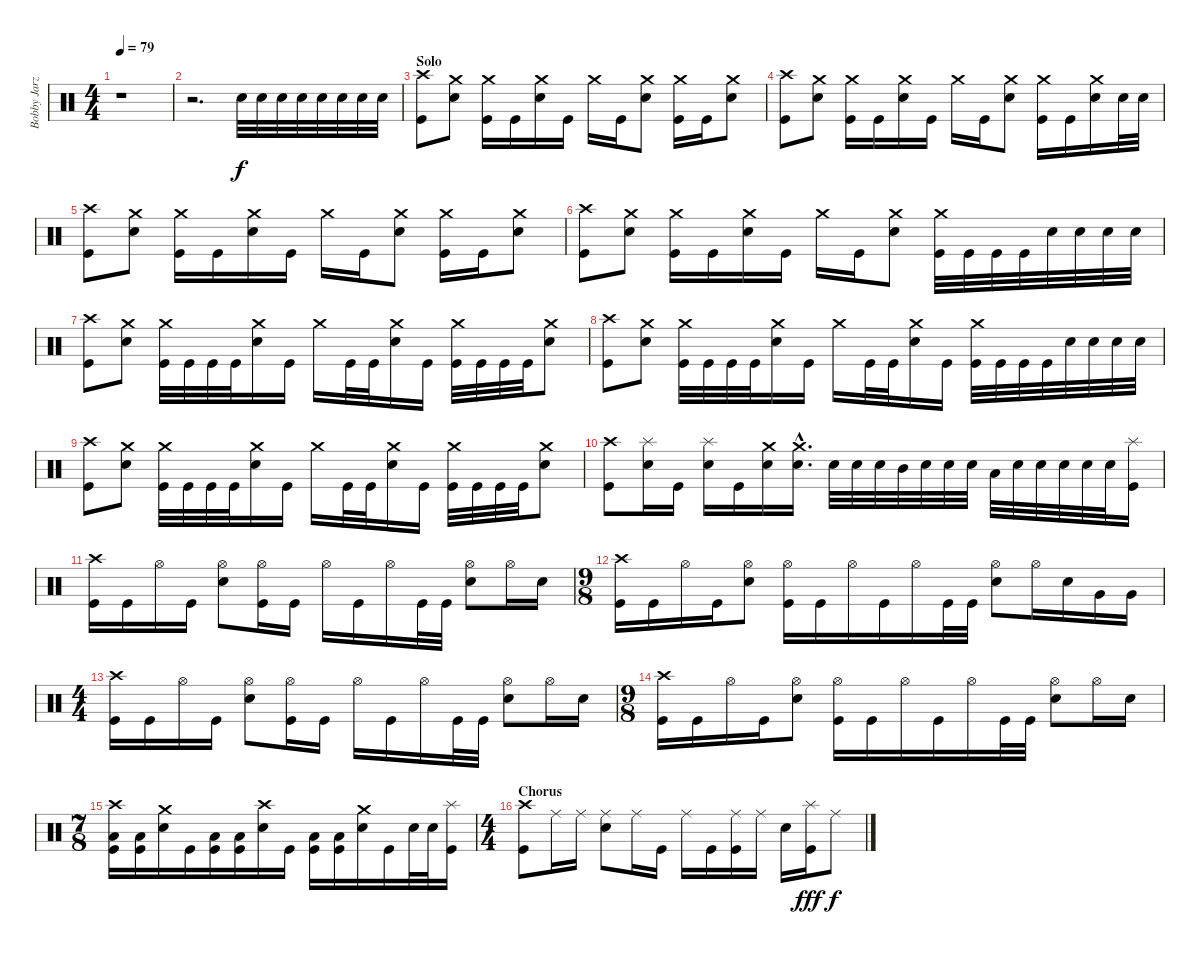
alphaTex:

\track ("Bobby Jarzombek" "Bobby Jarz") {instrument percussion}
\staff {score}
\articulation defaults
\ts (4 4)
\tempo 79
\clef neutral
\ks c
r.1{dy f} |
r.2{d} "Electric Snare (hit)".32 "Electric Snare (hit)".32 "Electric Snare (hit)".32 "Electric Snare (hit)".32 "Electric Snare (hit)".32 "Electric Snare (hit)".32 "Electric Snare (hit)".32 "Electric Snare (hit)".32 |
\section ("" "Solo")
("Crash high (hit)" "Kick (hit)").8 ("Crash medium (hit)" "Electric Snare (hit)").8 ("Crash medium (hit)" "Kick (hit)").16 "Kick (hit)".16 ("Crash medium (hit)" "Electric Snare (hit)").16 "Kick (hit)".16 "Crash medium (hit)".16 "Kick (hit)".16 ("Crash medium (hit)" "Electric Snare (hit)").8 ("Crash medium (hit)" "Kick (hit)").16 "Kick (hit)".16 ("Crash medium (hit)" "Electric Snare (hit)").8 |
("Crash high (hit)" "Kick (hit)").8 ("Crash medium (hit)" "Electric Snare (hit)").8 ("Crash medium (hit)" "Kick (hit)").16 "Kick (hit)".16 ("Crash medium (hit)" "Electric Snare (hit)").16 "Kick (hit)".16 "Crash medium (hit)".16 "Kick (hit)".16 ("Crash medium (hit)" "Electric Snare (hit)").8 ("Crash medium (hit)" "Kick (hit)").16 "Kick (hit)".16 ("Crash medium (hit)" "Electric Snare (hit)").16 "Electric Snare (hit)".32 "Electric Snare (hit)".32 |
("Crash high (hit)" "Kick (hit)").8 ("Crash medium (hit)" "Electric Snare (hit)").8 ("Crash medium (hit)" "Kick (hit)").16 "Kick (hit)".16 ("Crash medium (hit)" "Electric Snare (hit)").16 "Kick (hit)".16 "Crash medium (hit)".16 "Kick (hit)".16 ("Crash medium (hit)" "Electric Snare (hit)").8 ("Crash medium (hit)" "Kick (hit)").16 "Kick (hit)".16 ("Crash medium (hit)" "Electric Snare (hit)").8 |
("Crash high (hit)" "Kick (hit)").8 ("Crash medium (hit)" "Electric Snare (hit)").8 ("Crash medium (hit)" "Kick (hit)").16 "Kick (hit)".16 ("Crash medium (hit)" "Electric Snare (hit)").16 "Kick (hit)".16 "Crash medium (hit)".16 "Kick (hit)".16 ("Crash medium (hit)" "Electric Snare (hit)").8 ("Crash medium (hit)" "Kick (hit)").32 "Kick (hit)".32 "Kick (hit)".32 "Kick (hit)".32 "Electric Snare (hit)".32 "Electric Snare (hit)".32 "Electric Snare (hit)".32 "Electric Snare (hit)".32 |
("Crash high (hit)" "Kick (hit)").8 ("Crash medium (hit)" "Electric Snare (hit)").8 ("Crash medium (hit)" "Kick (hit)").32 "Kick (hit)".32 "Kick (hit)".32 "Kick (hit)".32 ("Crash medium (hit)" "Electric Snare (hit)").16 "Kick (hit)".16 "Crash medium (hit)".16 "Kick (hit)".32 "Kick (hit)".32 ("Crash medium (hit)" "Electric Snare (hit)").16 "Kick (hit)".16 ("Crash medium (hit)" "Kick (hit)").32 "Kick (hit)".32 "Kick (hit)".32 "Kick (hit)".32 ("Crash medium (hit)" "Electric Snare (hit)").8 |
("Crash high (hit)" "Kick (hit)").8 ("Crash medium (hit)" "Electric Snare (hit)").8 ("Crash medium (hit)" "Kick (hit)").32 "Kick (hit)".32 "Kick (hit)".32 "Kick (hit)".32 ("Crash medium (hit)" "Electric Snare (hit)").16 "Kick (hit)".16 "Crash medium (hit)".16 "Kick (hit)".32 "Kick (hit)".32 ("Crash medium (hit)" "Electric Snare (hit)").16 "Kick (hit)".16 ("Crash medium (hit)" "Kick (hit)").32 "Kick (hit)".32 "Kick (hit)".32 "Kick (hit)".32 "Electric Snare (hit)".32 "Electric Snare (hit)".32 "Electric Snare (hit)".32 "Electric Snare (hit)".32 |
("Crash high (hit)" "Kick (hit)").8 ("Crash medium (hit)" "Electric Snare (hit)").8 ("Crash medium (hit)" "Kick (hit)").32 "Kick (hit)".32 "Kick (hit)".32 "Kick (hit)".32 ("Crash medium (hit)" "Electric Snare (hit)").16 "Kick (hit)".16 "Crash medium (hit)".16 "Kick (hit)".32 "Kick (hit)".32 ("Crash medium (hit)" "Electric Snare (hit)").16 "Kick (hit)".16 ("Crash medium (hit)" "Kick (hit)").32 "Kick (hit)".32 "Kick (hit)".32 "Kick (hit)".32 ("Crash medium (hit)" "Electric Snare (hit)").8 |
("Crash high (hit)" "Kick (hit)").8 ("Splash (hit)" "Electric Snare (hit)").16 "Kick (hit)".16 ("Splash (hit)" "Electric Snare (hit)").16 "Kick (hit)".16 ("Crash medium (hit)" "Electric Snare (hit)").16 ("Crash medium (hit)"{hac} "Electric Snare (hit)"{hac}).16{d} "Electric Snare (hit)".32 "Electric Snare (hit)".32 "Electric Snare (hit)".32 "Mid Tom (hit)".32 "Electric Snare (hit)".32 "Electric Snare (hit)".32 "Electric Snare (hit)".32 "Low Tom (hit)".32 "Electric Snare (hit)".32 "Electric Snare (hit)".32 "Electric Snare (hit)".32 "Electric Snare (hit)".32 "Electric Snare (hit)".32 ("Splash (hit)" "Kick (hit)").16 |
("Crash high (hit)" "Kick (hit)").16 "Kick (hit)".16 "Hi-Hat (open)".16 "Kick (hit)".16 ("Hi-Hat (open)" "Electric Snare (hit)").8 ("Hi-Hat (open)" "Kick (hit)").16 "Kick (hit)".16 "Hi-Hat (open)".16 "Kick (hit)".16 "Hi-Hat (open)".16 "Kick (hit)".32 "Kick (hit)".32 ("Hi-Hat (open)" "Electric Snare (hit)").8 "Hi-Hat (open)".16 "Electric Snare (hit)".16 |
\ts (9 8)
("Crash high (hit)" "Kick (hit)").16 "Kick (hit)".16 "Hi-Hat (open)".16 "Kick (hit)".16 ("Hi-Hat (open)" "Electric Snare (hit)").8 ("Hi-Hat (open)" "Kick (hit)").16 "Kick (hit)".16 "Hi-Hat (open)".16 "Kick (hit)".16 "Hi-Hat (open)".16 "Kick (hit)".32 "Kick (hit)".32 ("Hi-Hat (open)" "Electric Snare (hit)").8 "Hi-Hat (open)".16 "Electric Snare (hit)".16 "Very Low Tom (hit)".16 "Very Low Tom (hit)".16 |
\ts (4 4)
("Crash high (hit)" "Kick (hit)").16 "Kick (hit)".16 "Hi-Hat (open)".16 "Kick (hit)".16 ("Hi-Hat (open)" "Electric Snare (hit)").8 ("Hi-Hat (open)" "Kick (hit)").16 "Kick (hit)".16 "Hi-Hat (open)".16 "Kick (hit)".16 "Hi-Hat (open)".16 "Kick (hit)".32 "Kick (hit)".32 ("Hi-Hat (open)" "Electric Snare (hit)").8 "Hi-Hat (open)".16 "Electric Snare (hit)".16 |
\ts (9 8)
("Crash high (hit)" "Kick (hit)").16 "Kick (hit)".16 "Hi-Hat (open)".16 "Kick (hit)".16 ("Hi-Hat (open)" "Electric Snare (hit)").8 ("Hi-Hat (open)" "Kick (hit)").16 "Kick (hit)".16 "Hi-Hat (open)".16 "Kick (hit)".16 "Hi-Hat (open)".16 "Kick (hit)".32 "Kick (hit)".32 ("Hi-Hat (open)" "Electric Snare (hit)").8 "Hi-Hat (open)".16 "Electric Snare (hit)".16 |
\ts (7 8)
("Crash high (hit)" "Low Tom (hit)" "Kick (hit)").16 ("Low Tom (hit)" "Kick (hit)").16 ("Crash medium (hit)" "Electric Snare (hit)").16 "Kick (hit)".16 ("Low Tom (hit)" "Kick (hit)").16 ("Low Tom (hit)" "Kick (hit)").16 ("Crash high (hit)" "Electric Snare (hit)").16 "Kick (hit)".16 ("Low Tom (hit)" "Kick (hit)").16 ("Low Tom (hit)" "Kick (hit)").16 ("Crash medium (hit)" "Electric Snare (hit)").16 "Kick (hit)".16 "Electric Snare (hit)".32 "Electric Snare (hit)".32 ("Splash (hit)" "Kick (hit)").16 |
\ts (4 4)
\section ("" "Chorus")
("Crash high (hit)" "Kick (hit)").8 "Ride (middle)".16 "Ride (middle)".16 ("Ride (middle)" "Electric Snare (hit)").8 "Ride (middle)".16 "Kick (hit)".16 "Ride (middle)".16 "Kick (hit)".16 ("Ride (middle)" "Kick (hit)").16 "Ride (middle)".16 "Electric Snare (hit)".16 ("Splash (hit)" "Kick (hit)").16{dy fff} "Ride (middle)".8{dy f}
